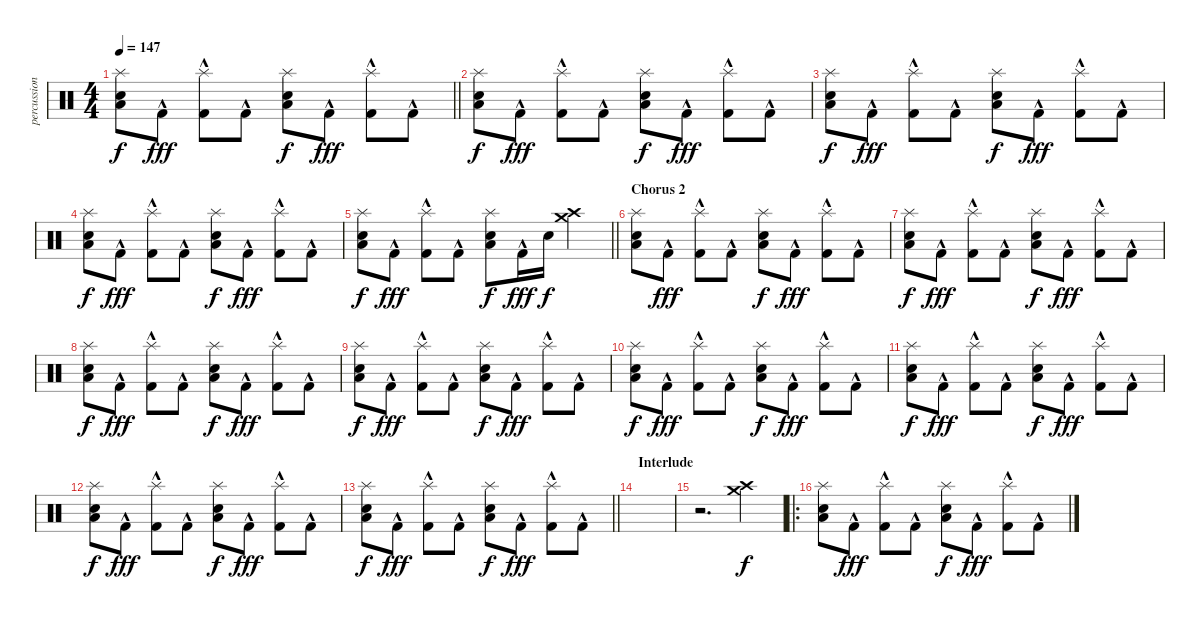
\track ("percussion" "percussion") {instrument percussion}
\staff {score}
\articulation defaults
\ts (4 4)
\tempo 147
\clef neutral
\barLineRight lightlight
\ks c
("Electric Snare (hit)" "Low Floor Tom (hit)" "Splash (hit)").8{dy f} "Kick (hit) 2"{hac}.8{dy fff} ("Kick (hit) 2"{hac} "Splash (hit)").8 "Kick (hit) 2"{hac}.8 ("Electric Snare (hit)" "Low Floor Tom (hit)" "Splash (hit)").8{dy f} "Kick (hit) 2"{hac}.8{dy fff} ("Kick (hit) 2"{hac} "Splash (hit)").8 "Kick (hit) 2"{hac}.8 |
("Electric Snare (hit)" "Low Floor Tom (hit)" "Splash (hit)").8{dy f} "Kick (hit) 2"{hac}.8{dy fff} ("Kick (hit) 2"{hac} "Splash (hit)").8 "Kick (hit) 2"{hac}.8 ("Electric Snare (hit)" "Low Floor Tom (hit)" "Splash (hit)").8{dy f} "Kick (hit) 2"{hac}.8{dy fff} ("Kick (hit) 2"{hac} "Splash (hit)").8 "Kick (hit) 2"{hac}.8 |
("Electric Snare (hit)" "Low Floor Tom (hit)" "Splash (hit)").8{dy f} "Kick (hit) 2"{hac}.8{dy fff} ("Kick (hit) 2"{hac} "Splash (hit)").8 "Kick (hit) 2"{hac}.8 ("Electric Snare (hit)" "Low Floor Tom (hit)" "Splash (hit)").8{dy f} "Kick (hit) 2"{hac}.8{dy fff} ("Kick (hit) 2"{hac} "Splash (hit)").8 "Kick (hit) 2"{hac}.8 |
("Electric Snare (hit)" "Low Floor Tom (hit)" "Splash (hit)").8{dy f} "Kick (hit) 2"{hac}.8{dy fff} ("Kick (hit) 2"{hac} "Splash (hit)").8 "Kick (hit) 2"{hac}.8 ("Electric Snare (hit)" "Low Floor Tom (hit)" "Splash (hit)").8{dy f} "Kick (hit) 2"{hac}.8{dy fff} ("Kick (hit) 2"{hac} "Splash (hit)").8 "Kick (hit) 2"{hac}.8 |
\barLineRight lightlight
("Electric Snare (hit)" "Low Floor Tom (hit)" "Splash (hit)").8{dy f} "Kick (hit) 2"{hac}.8{dy fff} ("Kick (hit) 2"{hac} "Splash (hit)").8 "Kick (hit) 2"{hac}.8 ("Electric Snare (hit)" "Low Floor Tom (hit)" "Splash (hit)").8{dy f} "Kick (hit) 2"{hac}.16{dy fff} "Electric Snare (hit)".16{dy f} ("Crash medium (hit)" "Crash high (hit)").4 |
\section ("" "Chorus 2")
("Electric Snare (hit)" "Low Floor Tom (hit)" "Splash (hit)").8 "Kick (hit) 2"{hac}.8{dy fff} ("Kick (hit) 2"{hac} "Splash (hit)").8 "Kick (hit) 2"{hac}.8 ("Electric Snare (hit)" "Low Floor Tom (hit)" "Splash (hit)").8{dy f} "Kick (hit) 2"{hac}.8{dy fff} ("Kick (hit) 2"{hac} "Splash (hit)").8 "Kick (hit) 2"{hac}.8 |
("Electric Snare (hit)" "Low Floor Tom (hit)" "Splash (hit)").8{dy f} "Kick (hit) 2"{hac}.8{dy fff} ("Kick (hit) 2"{hac} "Splash (hit)").8 "Kick (hit) 2"{hac}.8 ("Electric Snare (hit)" "Low Floor Tom (hit)" "Splash (hit)").8{dy f} "Kick (hit) 2"{hac}.8{dy fff} ("Kick (hit) 2"{hac} "Splash (hit)").8 "Kick (hit) 2"{hac}.8 |
("Electric Snare (hit)" "Low Floor Tom (hit)" "Splash (hit)").8{dy f} "Kick (hit) 2"{hac}.8{dy fff} ("Kick (hit) 2"{hac} "Splash (hit)").8 "Kick (hit) 2"{hac}.8 ("Electric Snare (hit)" "Low Floor Tom (hit)" "Splash (hit)").8{dy f} "Kick (hit) 2"{hac}.8{dy fff} ("Kick (hit) 2"{hac} "Splash (hit)").8 "Kick (hit) 2"{hac}.8 |
("Electric Snare (hit)" "Low Floor Tom (hit)" "Splash (hit)").8{dy f} "Kick (hit) 2"{hac}.8{dy fff} ("Kick (hit) 2"{hac} "Splash (hit)").8 "Kick (hit) 2"{hac}.8 ("Electric Snare (hit)" "Low Floor Tom (hit)" "Splash (hit)").8{dy f} "Kick (hit) 2"{hac}.8{dy fff} ("Kick (hit) 2"{hac} "Splash (hit)").8 "Kick (hit) 2"{hac}.8 |
("Electric Snare (hit)" "Low Floor Tom (hit)" "Splash (hit)").8{dy f} "Kick (hit) 2"{hac}.8{dy fff} ("Kick (hit) 2"{hac} "Splash (hit)").8 "Kick (hit) 2"{hac}.8 ("Electric Snare (hit)" "Low Floor Tom (hit)" "Splash (hit)").8{dy f} "Kick (hit) 2"{hac}.8{dy fff} ("Kick (hit) 2"{hac} "Splash (hit)").8 "Kick (hit) 2"{hac}.8 |
("Electric Snare (hit)" "Low Floor Tom (hit)" "Splash (hit)").8{dy f} "Kick (hit) 2"{hac}.8{dy fff} ("Kick (hit) 2"{hac} "Splash (hit)").8 "Kick (hit) 2"{hac}.8 ("Electric Snare (hit)" "Low Floor Tom (hit)" "Splash (hit)").8{dy f} "Kick (hit) 2"{hac}.8{dy fff} ("Kick (hit) 2"{hac} "Splash (hit)").8 "Kick (hit) 2"{hac}.8 |
("Electric Snare (hit)" "Low Floor Tom (hit)" "Splash (hit)").8{dy f} "Kick (hit) 2"{hac}.8{dy fff} ("Kick (hit) 2"{hac} "Splash (hit)").8 "Kick (hit) 2"{hac}.8 ("Electric Snare (hit)" "Low Floor Tom (hit)" "Splash (hit)").8{dy f} "Kick (hit) 2"{hac}.8{dy fff} ("Kick (hit) 2"{hac} "Splash (hit)").8 "Kick (hit) 2"{hac}.8 |
\barLineRight lightlight
("Electric Snare (hit)" "Low Floor Tom (hit)" "Splash (hit)").8{dy f} "Kick (hit) 2"{hac}.8{dy fff} ("Kick (hit) 2"{hac} "Splash (hit)").8 "Kick (hit) 2"{hac}.8 ("Electric Snare (hit)" "Low Floor Tom (hit)" "Splash (hit)").8{dy f} "Kick (hit) 2"{hac}.8{dy fff} ("Kick (hit) 2"{hac} "Splash (hit)").8 "Kick (hit) 2"{hac}.8 |
\section ("" "Interlude")
|
r.2{d} ("Crash medium (hit)" "Crash high (hit)").4{dy f} |
\ro
("Electric Snare (hit)" "Low Floor Tom (hit)" "Splash (hit)").8 "Kick (hit) 2"{hac}.8{dy fff} ("Kick (hit) 2"{hac} "Splash (hit)").8 "Kick (hit) 2"{hac}.8 ("Electric Snare (hit)" "Low Floor Tom (hit)" "Splash (hit)").8{dy f} "Kick (hit) 2"{hac}.8{dy fff} ("Kick (hit) 2"{hac} "Splash (hit)").8 "Kick (hit) 2"{hac}.8
